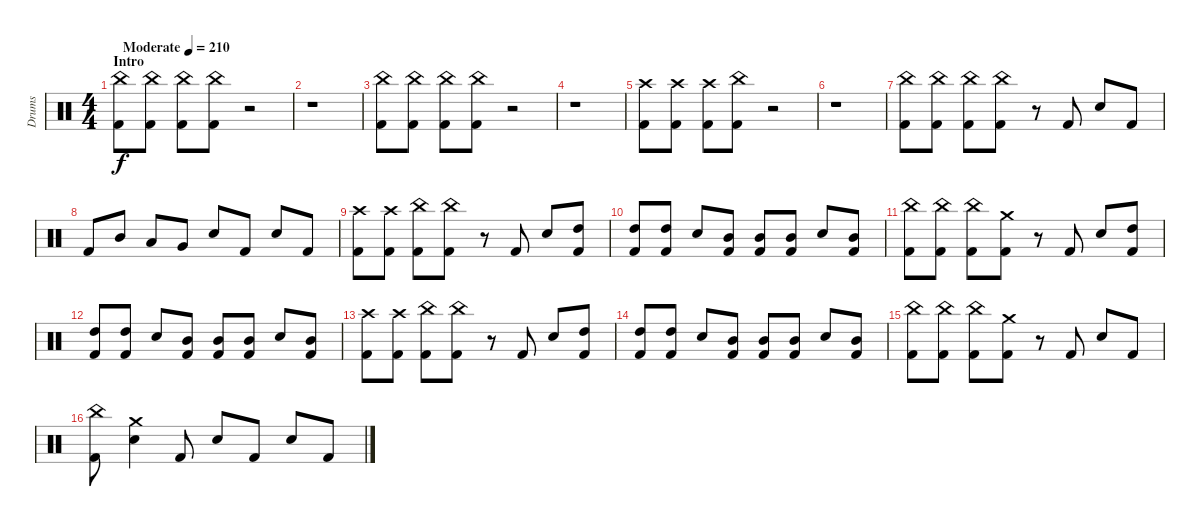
\track ("Drums" "Drums") {instrument percussion}
\staff {score}
\articulation defaults
\ts (4 4)
\section ("" "Intro")
\tempo (210 "Moderate")
\clef neutral
\ks c
("China (hit)" "Kick (hit) 2").8{dy f} ("China (hit)" "Kick (hit) 2").8 ("China (hit)" "Kick (hit) 2").8 ("China (hit)" "Kick (hit) 2").8 r.2 |
r.1 |
("China (hit)" "Kick (hit) 2").8 ("China (hit)" "Kick (hit) 2").8 ("China (hit)" "Kick (hit) 2").8 ("China (hit)" "Kick (hit) 2").8 r.2 |
r.1 |
("Crash high (hit)" "Kick (hit) 2").8 ("Crash high (hit)" "Kick (hit) 2").8 ("Crash high (hit)" "Kick (hit) 2").8 ("China (hit)" "Kick (hit) 2").8 r.2 |
r.1 |
("China (hit)" "Kick (hit) 2").8 ("China (hit)" "Kick (hit) 2").8 ("China (hit)" "Kick (hit) 2").8 ("China (hit)" "Kick (hit) 2").8 r.8 "Kick (hit) 2".8 "Snare (hit) 2".8 "Kick (hit) 2".8 |
"Kick (hit) 2".8 "Mid Tom (hit)".8 "Low Tom (hit)".8 "Very Low Tom (hit)".8 "Snare (hit) 2".8 "Kick (hit) 2".8 "Snare (hit) 2".8 "Kick (hit) 2".8 |
("Crash high (hit)" "Kick (hit) 2").8 ("Crash high (hit)" "Kick (hit) 2").8 ("China (hit)" "Kick (hit) 2").8 ("China (hit)" "Kick (hit) 2").8 r.8 "Kick (hit) 2".8 "Snare (hit) 2".8 ("High Tom (hit)" "Kick (hit) 2").8 |
("High Tom (hit)" "Kick (hit) 2").8 ("High Tom (hit)" "Kick (hit) 2").8 "Snare (hit) 2".8 ("Mid Tom (hit)" "Kick (hit) 2").8 ("Mid Tom (hit)" "Kick (hit) 2").8 ("Mid Tom (hit)" "Kick (hit) 2").8 "Snare (hit) 2".8 ("Mid Tom (hit)" "Kick (hit) 2").8 |
("China (hit)" "Kick (hit) 2").8 ("China (hit)" "Kick (hit) 2").8 ("China (hit)" "Kick (hit) 2").8 ("Crash medium (hit)" "Kick (hit) 2").8 r.8 "Kick (hit) 2".8 "Snare (hit) 2".8 ("High Tom (hit)" "Kick (hit) 2").8 |
("High Tom (hit)" "Kick (hit) 2").8 ("High Tom (hit)" "Kick (hit) 2").8 "Snare (hit) 2".8 ("Mid Tom (hit)" "Kick (hit) 2").8 ("Mid Tom (hit)" "Kick (hit) 2").8 ("Mid Tom (hit)" "Kick (hit) 2").8 "Snare (hit) 2".8 ("Mid Tom (hit)" "Kick (hit) 2").8 |
("Crash high (hit)" "Kick (hit) 2").8 ("Crash high (hit)" "Kick (hit) 2").8 ("China (hit)" "Kick (hit) 2").8 ("China (hit)" "Kick (hit) 2").8 r.8 "Kick (hit) 2".8 "Snare (hit) 2".8 ("High Tom (hit)" "Kick (hit) 2").8 |
("High Tom (hit)" "Kick (hit) 2").8 ("High Tom (hit)" "Kick (hit) 2").8 "Snare (hit) 2".8 ("Mid Tom (hit)" "Kick (hit) 2").8 ("Mid Tom (hit)" "Kick (hit) 2").8 ("Mid Tom (hit)" "Kick (hit) 2").8 "Snare (hit) 2".8 ("Mid Tom (hit)" "Kick (hit) 2").8 |
("China (hit)" "Kick (hit) 2").8 ("China (hit)" "Kick (hit) 2").8 ("China (hit)" "Kick (hit) 2").8 ("Crash medium (hit)" "Kick (hit) 2").8 r.8 "Kick (hit) 2".8 "Snare (hit) 2".8 "Kick (hit) 2".8 |
("China (hit)" "Kick (hit) 2").8 ("Crash medium (hit)" "Snare (hit) 2").4 "Kick (hit) 2".8 "Snare (hit) 2".8 "Kick (hit) 2".8 "Snare (hit) 2".8 "Kick (hit) 2".8
